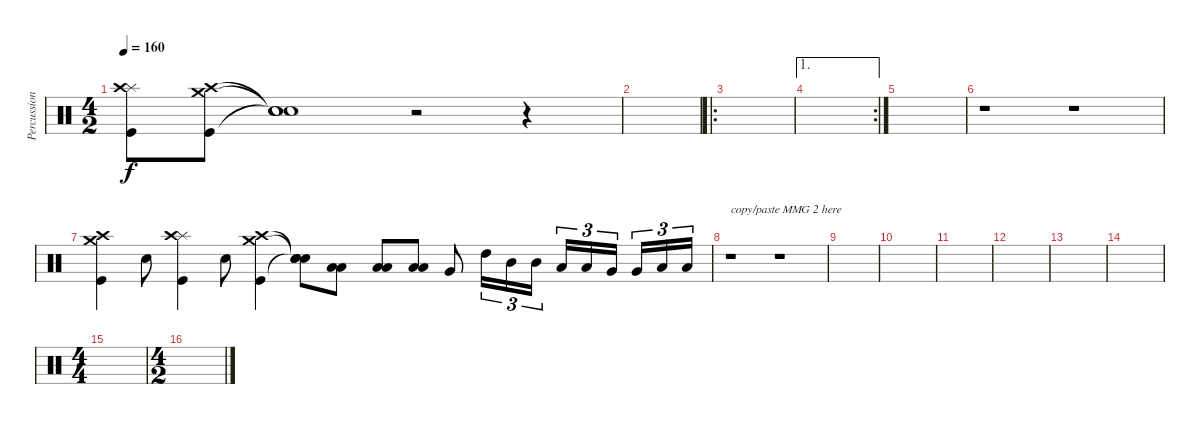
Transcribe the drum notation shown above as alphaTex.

\track ("Percussion" "Percussion") {instrument percussion}
\staff {score}
\articulation defaults
\ts (4 2)
\tempo 160
\clef neutral
\ks c
("Kick (hit)" "Splash (hit)" "Crash high (hit)").8{dy f} ("Kick (hit)" "Crash medium (hit)" "Crash high (hit)").8 ("Snare (hit)"{t} "Snare (hit)"{t} "Snare (hit)"{t}).1 r.2 r.4 |
|
\ro
|
\ae 1
\rc 2
|
|
r.1 r.1 |
("Kick (hit)" "Crash medium (hit)" "Crash high (hit)").4 "Electric Snare (hit)".8 ("Kick (hit)" "Splash (hit)" "Crash high (hit)").4 "Electric Snare (hit)".8 ("Kick (hit)" "Crash medium (hit)" "Crash high (hit)").4 ("Snare (hit)"{t} "Snare (hit)"{t} "Snare (hit)"{t}).8 ("Low Floor Tom (hit)" "Low Tom (hit)").8 ("Low Floor Tom (hit)" "Low Tom (hit)").8 ("Low Floor Tom (hit)" "Low Tom (hit)").8 "Very Low Tom (hit)".8 "High Tom (hit)".16{tu (3 2)} "Mid Tom (hit)".16{tu (3 2)} "Mid Tom (hit)".16{tu (3 2)} "Low Tom (hit)".16{tu (3 2)} "Low Tom (hit)".16{tu (3 2)} "Very Low Tom (hit)".16{tu (3 2)} "Very Low Tom (hit)".16{tu (3 2)} "Low Floor Tom (hit)".16{tu (3 2)} "Low Floor Tom (hit)".16{tu (3 2)} |
r.1{txt "copy/paste MMG 2 here"} r.1 |
|
|
|
|
|
|
\ts (4 4)
|
\ts (4 2)
